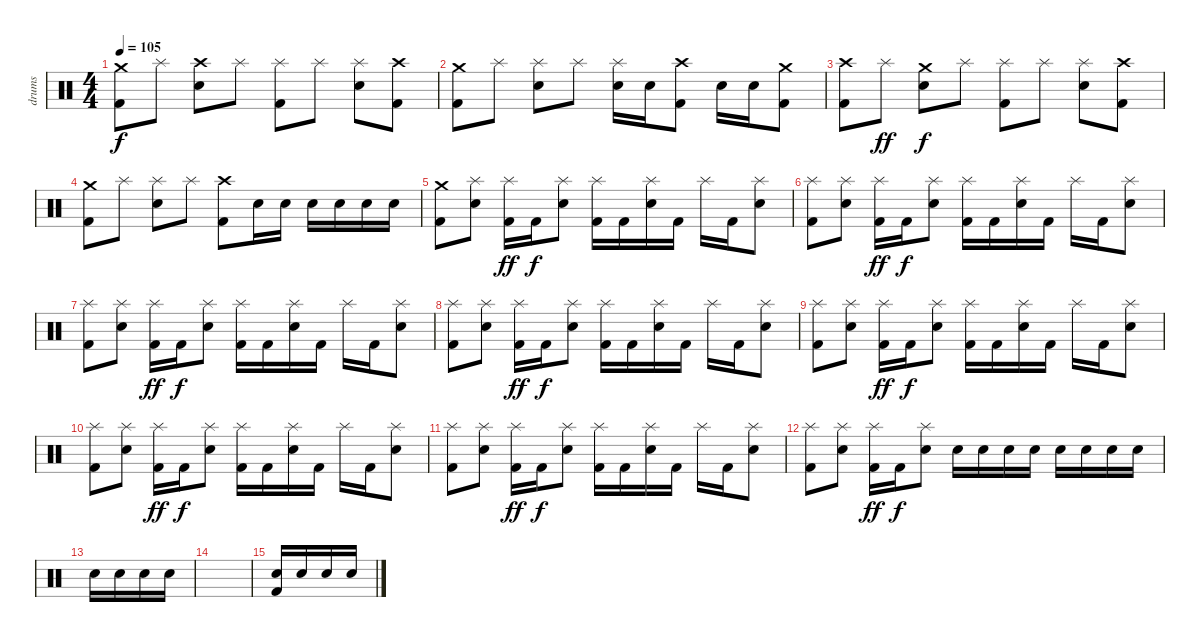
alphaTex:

\track ("drums" "drums") {instrument percussion}
\staff {score}
\articulation defaults
\ts (4 4)
\tempo 105
\clef neutral
\ks c
("Crash medium (hit)" "Kick (hit) 2").8{dy f} "Splash (hit)".8 ("Crash high (hit)" "Electric Snare (hit)").8 "Splash (hit)".8 ("Splash (hit)" "Kick (hit) 2").8 "Splash (hit)".8 ("Splash (hit)" "Electric Snare (hit)").8 ("Crash high (hit)" "Kick (hit) 2").8 |
("Crash medium (hit)" "Kick (hit) 2").8 "Splash (hit)".8 ("Splash (hit)" "Electric Snare (hit)").8 "Splash (hit)".8 ("Splash (hit)" "Electric Snare (hit)").16 "Electric Snare (hit)".16 ("Crash high (hit)" "Kick (hit) 2").8 "Electric Snare (hit)".16 "Electric Snare (hit)".16 ("Crash medium (hit)" "Kick (hit) 2").8 |
("Crash high (hit)" "Kick (hit) 2").8 "Splash (hit)".8{dy ff} ("Crash medium (hit)" "Electric Snare (hit)").8{dy f} "Splash (hit)".8 ("Splash (hit)" "Kick (hit) 2").8 "Splash (hit)".8 ("Splash (hit)" "Electric Snare (hit)").8 ("Crash high (hit)" "Kick (hit) 2").8 |
("Crash medium (hit)" "Kick (hit) 2").8 "Splash (hit)".8 ("Splash (hit)" "Electric Snare (hit)").8 "Splash (hit)".8 ("Crash high (hit)" "Kick (hit) 2").8 "Electric Snare (hit)".16 "Electric Snare (hit)".16 "Electric Snare (hit)".16 "Electric Snare (hit)".16 "Electric Snare (hit)".16 "Electric Snare (hit)".16 |
("Crash medium (hit)" "Kick (hit) 2").8 ("Splash (hit)" "Electric Snare (hit)").8 ("Splash (hit)" "Kick (hit) 2").16{dy ff} "Kick (hit) 2".16{dy f} ("Splash (hit)" "Electric Snare (hit)").8 ("Splash (hit)" "Kick (hit) 2").16 "Kick (hit) 2".16 ("Splash (hit)" "Electric Snare (hit)").16 "Kick (hit) 2".16 "Splash (hit)".16 "Kick (hit) 2".16 ("Splash (hit)" "Electric Snare (hit)").8 |
("Splash (hit)" "Kick (hit) 2").8 ("Splash (hit)" "Electric Snare (hit)").8 ("Splash (hit)" "Kick (hit) 2").16{dy ff} "Kick (hit) 2".16{dy f} ("Splash (hit)" "Electric Snare (hit)").8 ("Splash (hit)" "Kick (hit) 2").16 "Kick (hit) 2".16 ("Splash (hit)" "Electric Snare (hit)").16 "Kick (hit) 2".16 "Splash (hit)".16 "Kick (hit) 2".16 ("Splash (hit)" "Electric Snare (hit)").8 |
("Splash (hit)" "Kick (hit) 2").8 ("Splash (hit)" "Electric Snare (hit)").8 ("Splash (hit)" "Kick (hit) 2").16{dy ff} "Kick (hit) 2".16{dy f} ("Splash (hit)" "Electric Snare (hit)").8 ("Splash (hit)" "Kick (hit) 2").16 "Kick (hit) 2".16 ("Splash (hit)" "Electric Snare (hit)").16 "Kick (hit) 2".16 "Splash (hit)".16 "Kick (hit) 2".16 ("Splash (hit)" "Electric Snare (hit)").8 |
("Splash (hit)" "Kick (hit) 2").8 ("Splash (hit)" "Electric Snare (hit)").8 ("Splash (hit)" "Kick (hit) 2").16{dy ff} "Kick (hit) 2".16{dy f} ("Splash (hit)" "Electric Snare (hit)").8 ("Splash (hit)" "Kick (hit) 2").16 "Kick (hit) 2".16 ("Splash (hit)" "Electric Snare (hit)").16 "Kick (hit) 2".16 "Splash (hit)".16 "Kick (hit) 2".16 ("Splash (hit)" "Electric Snare (hit)").8 |
("Splash (hit)" "Kick (hit) 2").8 ("Splash (hit)" "Electric Snare (hit)").8 ("Splash (hit)" "Kick (hit) 2").16{dy ff} "Kick (hit) 2".16{dy f} ("Splash (hit)" "Electric Snare (hit)").8 ("Splash (hit)" "Kick (hit) 2").16 "Kick (hit) 2".16 ("Splash (hit)" "Electric Snare (hit)").16 "Kick (hit) 2".16 "Splash (hit)".16 "Kick (hit) 2".16 ("Splash (hit)" "Electric Snare (hit)").8 |
("Splash (hit)" "Kick (hit) 2").8 ("Splash (hit)" "Electric Snare (hit)").8 ("Splash (hit)" "Kick (hit) 2").16{dy ff} "Kick (hit) 2".16{dy f} ("Splash (hit)" "Electric Snare (hit)").8 ("Splash (hit)" "Kick (hit) 2").16 "Kick (hit) 2".16 ("Splash (hit)" "Electric Snare (hit)").16 "Kick (hit) 2".16 "Splash (hit)".16 "Kick (hit) 2".16 ("Splash (hit)" "Electric Snare (hit)").8 |
("Splash (hit)" "Kick (hit) 2").8 ("Splash (hit)" "Electric Snare (hit)").8 ("Splash (hit)" "Kick (hit) 2").16{dy ff} "Kick (hit) 2".16{dy f} ("Splash (hit)" "Electric Snare (hit)").8 ("Splash (hit)" "Kick (hit) 2").16 "Kick (hit) 2".16 ("Splash (hit)" "Electric Snare (hit)").16 "Kick (hit) 2".16 "Splash (hit)".16 "Kick (hit) 2".16 ("Splash (hit)" "Electric Snare (hit)").8 |
("Splash (hit)" "Kick (hit) 2").8 ("Splash (hit)" "Electric Snare (hit)").8 ("Splash (hit)" "Kick (hit) 2").16{dy ff} "Kick (hit) 2".16{dy f} ("Splash (hit)" "Electric Snare (hit)").8 "Electric Snare (hit)".16 "Electric Snare (hit)".16 "Electric Snare (hit)".16 "Electric Snare (hit)".16 "Electric Snare (hit)".16 "Electric Snare (hit)".16 "Electric Snare (hit)".16 "Electric Snare (hit)".16 |
"Electric Snare (hit)".16 "Electric Snare (hit)".16 "Electric Snare (hit)".16 "Electric Snare (hit)".16 |
|
("Electric Snare (hit)" "Kick (hit) 2").16 "Electric Snare (hit)".16 "Electric Snare (hit)".16 "Electric Snare (hit)".16
